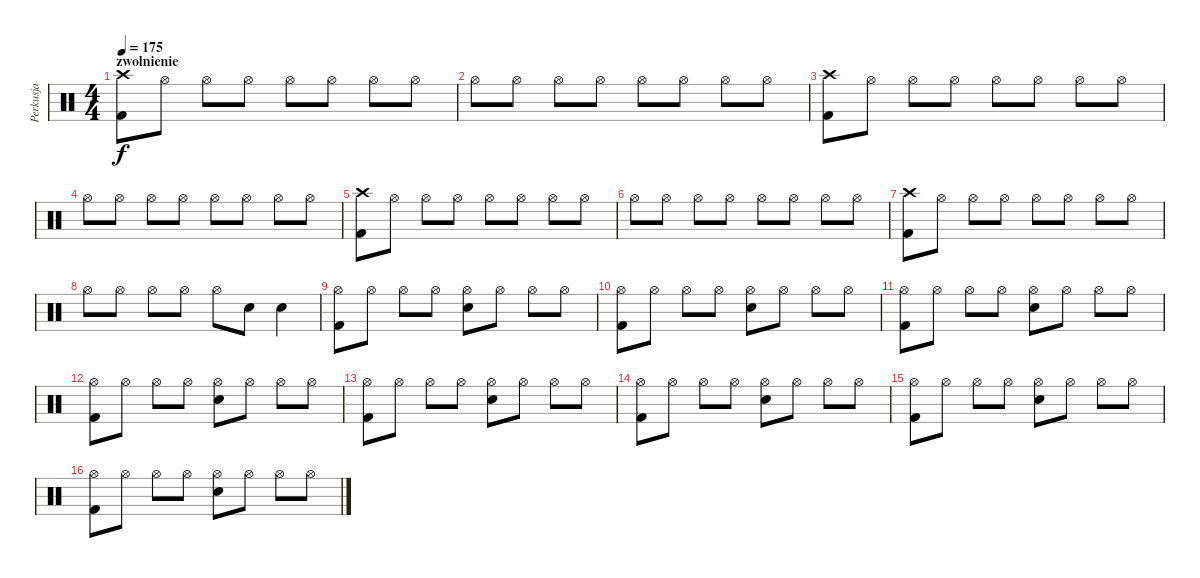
\track ("Perkusja" "Perkusja") {instrument percussion}
\staff {score}
\articulation defaults
\ts (4 4)
\section ("" "zwolnienie")
\tempo 175
\clef neutral
\ks c
("Kick (hit) 2" "Crash high (hit)").8{dy f} "Hi-Hat (open)".8 "Hi-Hat (open)".8 "Hi-Hat (open)".8 "Hi-Hat (open)".8 "Hi-Hat (open)".8 "Hi-Hat (open)".8 "Hi-Hat (open)".8 |
"Hi-Hat (open)".8 "Hi-Hat (open)".8 "Hi-Hat (open)".8 "Hi-Hat (open)".8 "Hi-Hat (open)".8 "Hi-Hat (open)".8 "Hi-Hat (open)".8 "Hi-Hat (open)".8 |
("Kick (hit) 2" "Crash high (hit)").8 "Hi-Hat (open)".8 "Hi-Hat (open)".8 "Hi-Hat (open)".8 "Hi-Hat (open)".8 "Hi-Hat (open)".8 "Hi-Hat (open)".8 "Hi-Hat (open)".8 |
"Hi-Hat (open)".8 "Hi-Hat (open)".8 "Hi-Hat (open)".8 "Hi-Hat (open)".8 "Hi-Hat (open)".8 "Hi-Hat (open)".8 "Hi-Hat (open)".8 "Hi-Hat (open)".8 |
("Kick (hit) 2" "Crash high (hit)").8 "Hi-Hat (open)".8 "Hi-Hat (open)".8 "Hi-Hat (open)".8 "Hi-Hat (open)".8 "Hi-Hat (open)".8 "Hi-Hat (open)".8 "Hi-Hat (open)".8 |
"Hi-Hat (open)".8 "Hi-Hat (open)".8 "Hi-Hat (open)".8 "Hi-Hat (open)".8 "Hi-Hat (open)".8 "Hi-Hat (open)".8 "Hi-Hat (open)".8 "Hi-Hat (open)".8 |
("Kick (hit) 2" "Crash high (hit)").8 "Hi-Hat (open)".8 "Hi-Hat (open)".8 "Hi-Hat (open)".8 "Hi-Hat (open)".8 "Hi-Hat (open)".8 "Hi-Hat (open)".8 "Hi-Hat (open)".8 |
"Hi-Hat (open)".8 "Hi-Hat (open)".8 "Hi-Hat (open)".8 "Hi-Hat (open)".8 "Hi-Hat (open)".8 "Snare (hit) 2".8 "Snare (hit) 2".4 |
("Kick (hit) 2" "Hi-Hat (open)").8 "Hi-Hat (open)".8 "Hi-Hat (open)".8 "Hi-Hat (open)".8 ("Snare (hit) 2" "Hi-Hat (open)").8 "Hi-Hat (open)".8 "Hi-Hat (open)".8 "Hi-Hat (open)".8 |
("Kick (hit) 2" "Hi-Hat (open)").8 "Hi-Hat (open)".8 "Hi-Hat (open)".8 "Hi-Hat (open)".8 ("Snare (hit) 2" "Hi-Hat (open)").8 "Hi-Hat (open)".8 "Hi-Hat (open)".8 "Hi-Hat (open)".8 |
("Kick (hit) 2" "Hi-Hat (open)").8 "Hi-Hat (open)".8 "Hi-Hat (open)".8 "Hi-Hat (open)".8 ("Snare (hit) 2" "Hi-Hat (open)").8 "Hi-Hat (open)".8 "Hi-Hat (open)".8 "Hi-Hat (open)".8 |
("Kick (hit) 2" "Hi-Hat (open)").8 "Hi-Hat (open)".8 "Hi-Hat (open)".8 "Hi-Hat (open)".8 ("Snare (hit) 2" "Hi-Hat (open)").8 "Hi-Hat (open)".8 "Hi-Hat (open)".8 "Hi-Hat (open)".8 |
("Kick (hit) 2" "Hi-Hat (open)").8 "Hi-Hat (open)".8 "Hi-Hat (open)".8 "Hi-Hat (open)".8 ("Snare (hit) 2" "Hi-Hat (open)").8 "Hi-Hat (open)".8 "Hi-Hat (open)".8 "Hi-Hat (open)".8 |
("Kick (hit) 2" "Hi-Hat (open)").8 "Hi-Hat (open)".8 "Hi-Hat (open)".8 "Hi-Hat (open)".8 ("Snare (hit) 2" "Hi-Hat (open)").8 "Hi-Hat (open)".8 "Hi-Hat (open)".8 "Hi-Hat (open)".8 |
("Kick (hit) 2" "Hi-Hat (open)").8 "Hi-Hat (open)".8 "Hi-Hat (open)".8 "Hi-Hat (open)".8 ("Snare (hit) 2" "Hi-Hat (open)").8 "Hi-Hat (open)".8 "Hi-Hat (open)".8 "Hi-Hat (open)".8 |
("Kick (hit) 2" "Hi-Hat (open)").8 "Hi-Hat (open)".8 "Hi-Hat (open)".8 "Hi-Hat (open)".8 ("Snare (hit) 2" "Hi-Hat (open)").8 "Hi-Hat (open)".8 "Hi-Hat (open)".8 "Hi-Hat (open)".8
